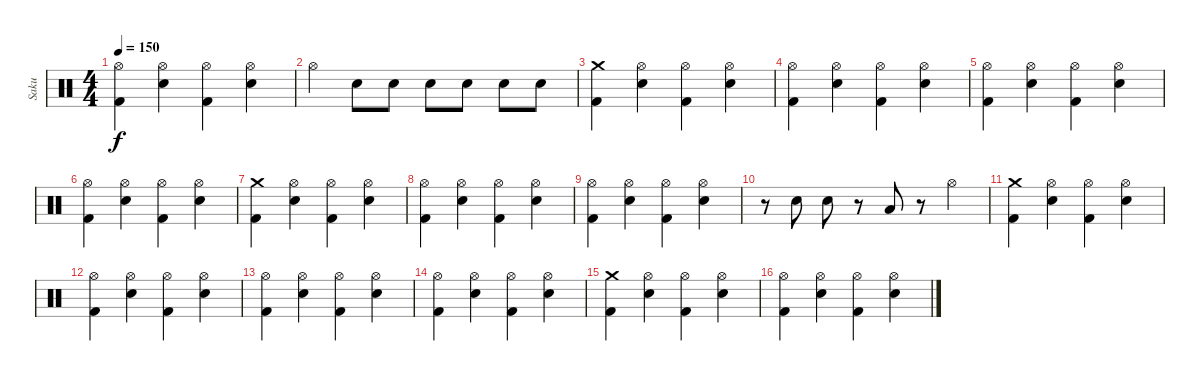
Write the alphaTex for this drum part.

\track ("Saku" "Saku") {instrument percussion}
\staff {score}
\articulation defaults
\ts (4 4)
\tempo 150
\clef neutral
\ks c
("Hi-Hat (open)" "Kick (hit) 2").4{dy f} ("Hi-Hat (open)" "Electric Snare (hit)").4 ("Hi-Hat (open)" "Kick (hit) 2").4 ("Hi-Hat (open)" "Electric Snare (hit)").4 |
"Hi-Hat (open)".4 "Electric Snare (hit)".8 "Electric Snare (hit)".8 "Electric Snare (hit)".8 "Electric Snare (hit)".8 "Electric Snare (hit)".8 "Electric Snare (hit)".8 |
("Crash medium (hit)" "Kick (hit) 2").4 ("Hi-Hat (open)" "Electric Snare (hit)").4 ("Hi-Hat (open)" "Kick (hit) 2").4 ("Hi-Hat (open)" "Electric Snare (hit)").4 |
("Hi-Hat (open)" "Kick (hit) 2").4 ("Hi-Hat (open)" "Electric Snare (hit)").4 ("Hi-Hat (open)" "Kick (hit) 2").4 ("Hi-Hat (open)" "Electric Snare (hit)").4 |
("Hi-Hat (open)" "Kick (hit) 2").4 ("Hi-Hat (open)" "Electric Snare (hit)").4 ("Hi-Hat (open)" "Kick (hit) 2").4 ("Hi-Hat (open)" "Electric Snare (hit)").4 |
("Hi-Hat (open)" "Kick (hit) 2").4 ("Hi-Hat (open)" "Electric Snare (hit)").4 ("Hi-Hat (open)" "Kick (hit) 2").4 ("Hi-Hat (open)" "Electric Snare (hit)").4 |
("Crash medium (hit)" "Kick (hit) 2").4 ("Hi-Hat (open)" "Electric Snare (hit)").4 ("Hi-Hat (open)" "Kick (hit) 2").4 ("Hi-Hat (open)" "Electric Snare (hit)").4 |
("Hi-Hat (open)" "Kick (hit) 2").4 ("Hi-Hat (open)" "Electric Snare (hit)").4 ("Hi-Hat (open)" "Kick (hit) 2").4 ("Hi-Hat (open)" "Electric Snare (hit)").4 |
("Hi-Hat (open)" "Kick (hit) 2").4 ("Hi-Hat (open)" "Electric Snare (hit)").4 ("Hi-Hat (open)" "Kick (hit) 2").4 ("Hi-Hat (open)" "Electric Snare (hit)").4 |
r.8 "Electric Snare (hit)".8 "Electric Snare (hit)".8 r.8 "Low Tom (hit)".8 r.8 "Hi-Hat (open)".4 |
("Crash medium (hit)" "Kick (hit) 2").4 ("Hi-Hat (open)" "Electric Snare (hit)").4 ("Hi-Hat (open)" "Kick (hit) 2").4 ("Hi-Hat (open)" "Electric Snare (hit)").4 |
("Hi-Hat (open)" "Kick (hit) 2").4 ("Hi-Hat (open)" "Electric Snare (hit)").4 ("Hi-Hat (open)" "Kick (hit) 2").4 ("Hi-Hat (open)" "Electric Snare (hit)").4 |
("Hi-Hat (open)" "Kick (hit) 2").4 ("Hi-Hat (open)" "Electric Snare (hit)").4 ("Hi-Hat (open)" "Kick (hit) 2").4 ("Hi-Hat (open)" "Electric Snare (hit)").4 |
("Hi-Hat (open)" "Kick (hit) 2").4 ("Hi-Hat (open)" "Electric Snare (hit)").4 ("Hi-Hat (open)" "Kick (hit) 2").4 ("Hi-Hat (open)" "Electric Snare (hit)").4 |
("Crash medium (hit)" "Kick (hit) 2").4 ("Hi-Hat (open)" "Electric Snare (hit)").4 ("Hi-Hat (open)" "Kick (hit) 2").4 ("Hi-Hat (open)" "Electric Snare (hit)").4 |
("Hi-Hat (open)" "Kick (hit) 2").4 ("Hi-Hat (open)" "Electric Snare (hit)").4 ("Hi-Hat (open)" "Kick (hit) 2").4 ("Hi-Hat (open)" "Electric Snare (hit)").4
